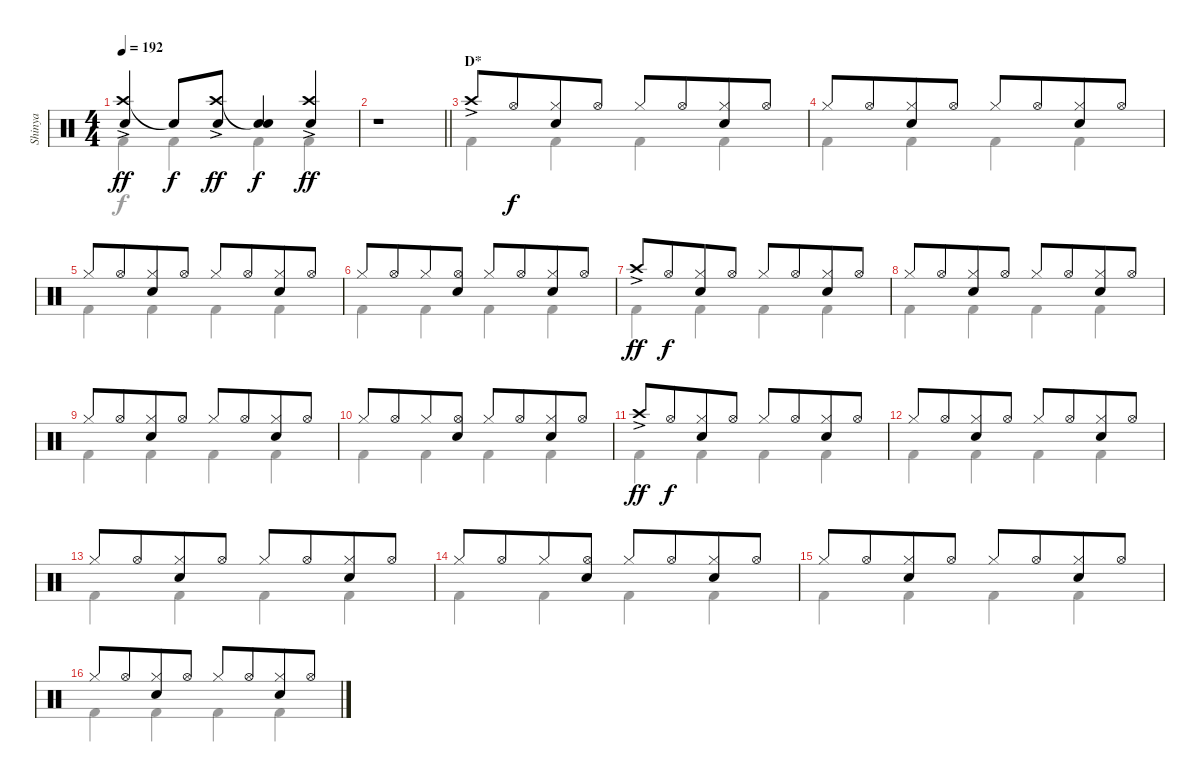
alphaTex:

\track ("Shinya" "Shinya") {instrument percussion}
\staff {score}
\articulation defaults
\voice
\ts (4 4)
\tempo 192
\clef neutral
\ks c
("Crash high (hit)"{ac} "Snare (hit) 2").4{dy ff} "Snare (hit)"{t}.8{dy f} ("Crash high (hit)"{ac} "Snare (hit) 2").8{dy ff} ("Snare (hit)"{t} "Snare (hit) 2").4{dy f} ("Crash high (hit)"{ac} "Snare (hit) 2").4{dy ff} |
\barLineRight lightlight
r.1 |
\section ("" "D*")
"Crash high (hit)"{ac}.8 "Hi-Hat (open)".8{dy f beam merge} ("Hi-Hat (closed)" "Snare (hit) 2").8 "Hi-Hat (open)".8 "Hi-Hat (closed)".8 "Hi-Hat (open)".8{beam merge} ("Hi-Hat (closed)" "Snare (hit) 2").8 "Hi-Hat (open)".8 |
"Hi-Hat (closed)".8 "Hi-Hat (open)".8{beam merge} ("Hi-Hat (closed)" "Snare (hit) 2").8 "Hi-Hat (open)".8 "Hi-Hat (closed)".8 "Hi-Hat (open)".8{beam merge} ("Hi-Hat (closed)" "Snare (hit) 2").8 "Hi-Hat (open)".8 |
"Hi-Hat (closed)".8 "Hi-Hat (open)".8{beam merge} ("Hi-Hat (closed)" "Snare (hit) 2").8 "Hi-Hat (open)".8 "Hi-Hat (closed)".8 "Hi-Hat (open)".8{beam merge} ("Hi-Hat (closed)" "Snare (hit) 2").8 "Hi-Hat (open)".8 |
"Hi-Hat (closed)".8 "Hi-Hat (open)".8{beam merge} "Hi-Hat (closed)".8 ("Hi-Hat (open)" "Snare (hit) 2").8 "Hi-Hat (closed)".8 "Hi-Hat (open)".8{beam merge} ("Hi-Hat (closed)" "Snare (hit) 2").8 "Hi-Hat (open)".8 |
"Crash high (hit)"{ac}.8{dy ff} "Hi-Hat (open)".8{dy f beam merge} ("Hi-Hat (closed)" "Snare (hit) 2").8 "Hi-Hat (open)".8 "Hi-Hat (closed)".8 "Hi-Hat (open)".8{beam merge} ("Hi-Hat (closed)" "Snare (hit) 2").8 "Hi-Hat (open)".8 |
"Hi-Hat (closed)".8 "Hi-Hat (open)".8{beam merge} ("Hi-Hat (closed)" "Snare (hit) 2").8 "Hi-Hat (open)".8 "Hi-Hat (closed)".8 "Hi-Hat (open)".8{beam merge} ("Hi-Hat (closed)" "Snare (hit) 2").8 "Hi-Hat (open)".8 |
"Hi-Hat (closed)".8 "Hi-Hat (open)".8{beam merge} ("Hi-Hat (closed)" "Snare (hit) 2").8 "Hi-Hat (open)".8 "Hi-Hat (closed)".8 "Hi-Hat (open)".8{beam merge} ("Hi-Hat (closed)" "Snare (hit) 2").8 "Hi-Hat (open)".8 |
"Hi-Hat (closed)".8 "Hi-Hat (open)".8{beam merge} "Hi-Hat (closed)".8 ("Hi-Hat (open)" "Snare (hit) 2").8 "Hi-Hat (closed)".8 "Hi-Hat (open)".8{beam merge} ("Hi-Hat (closed)" "Snare (hit) 2").8 "Hi-Hat (open)".8 |
"Crash high (hit)"{ac}.8{dy ff} "Hi-Hat (open)".8{dy f beam merge} ("Hi-Hat (closed)" "Snare (hit) 2").8 "Hi-Hat (open)".8 "Hi-Hat (closed)".8 "Hi-Hat (open)".8{beam merge} ("Hi-Hat (closed)" "Snare (hit) 2").8 "Hi-Hat (open)".8 |
"Hi-Hat (closed)".8 "Hi-Hat (open)".8{beam merge} ("Hi-Hat (closed)" "Snare (hit) 2").8 "Hi-Hat (open)".8 "Hi-Hat (closed)".8 "Hi-Hat (open)".8{beam merge} ("Hi-Hat (closed)" "Snare (hit) 2").8 "Hi-Hat (open)".8 |
"Hi-Hat (closed)".8 "Hi-Hat (open)".8{beam merge} ("Hi-Hat (closed)" "Snare (hit) 2").8 "Hi-Hat (open)".8 "Hi-Hat (closed)".8 "Hi-Hat (open)".8{beam merge} ("Hi-Hat (closed)" "Snare (hit) 2").8 "Hi-Hat (open)".8 |
"Hi-Hat (closed)".8 "Hi-Hat (open)".8{beam merge} "Hi-Hat (closed)".8 ("Hi-Hat (open)" "Snare (hit) 2").8 "Hi-Hat (closed)".8 "Hi-Hat (open)".8{beam merge} ("Hi-Hat (closed)" "Snare (hit) 2").8 "Hi-Hat (open)".8 |
"Hi-Hat (closed)".8 "Hi-Hat (open)".8{beam merge} ("Hi-Hat (closed)" "Snare (hit) 2").8 "Hi-Hat (open)".8 "Hi-Hat (closed)".8 "Hi-Hat (open)".8{beam merge} ("Hi-Hat (closed)" "Snare (hit) 2").8 "Hi-Hat (open)".8 |
"Hi-Hat (closed)".8 "Hi-Hat (open)".8{beam merge} ("Hi-Hat (closed)" "Snare (hit) 2").8 "Hi-Hat (open)".8 "Hi-Hat (closed)".8 "Hi-Hat (open)".8{beam merge} ("Hi-Hat (closed)" "Snare (hit) 2").8 "Hi-Hat (open)".8
\voice
\clef neutral
\ottava regular
\simile none
\ks c "Kick (hit) 2".4{dy f} "Kick (hit) 2".4 "Kick (hit) 2".4 "Kick (hit) 2".4
|
\barLineRight lightlight
r.1 |
"Kick (hit) 2".4 "Kick (hit) 2".4 "Kick (hit) 2".4 "Kick (hit) 2".4 |
"Kick (hit) 2".4 "Kick (hit) 2".4 "Kick (hit) 2".4 "Kick (hit) 2".4 |
"Kick (hit) 2".4 "Kick (hit) 2".4 "Kick (hit) 2".4 "Kick (hit) 2".4 |
"Kick (hit) 2".4 "Kick (hit) 2".4 "Kick (hit) 2".4 "Kick (hit) 2".4 |
"Kick (hit) 2".4 "Kick (hit) 2".4 "Kick (hit) 2".4 "Kick (hit) 2".4 |
"Kick (hit) 2".4 "Kick (hit) 2".4 "Kick (hit) 2".4 "Kick (hit) 2".4 |
"Kick (hit) 2".4 "Kick (hit) 2".4 "Kick (hit) 2".4 "Kick (hit) 2".4 |
"Kick (hit) 2".4 "Kick (hit) 2".4 "Kick (hit) 2".4 "Kick (hit) 2".4 |
"Kick (hit) 2".4 "Kick (hit) 2".4 "Kick (hit) 2".4 "Kick (hit) 2".4 |
"Kick (hit) 2".4 "Kick (hit) 2".4 "Kick (hit) 2".4 "Kick (hit) 2".4 |
"Kick (hit) 2".4 "Kick (hit) 2".4 "Kick (hit) 2".4 "Kick (hit) 2".4 |
"Kick (hit) 2".4 "Kick (hit) 2".4 "Kick (hit) 2".4 "Kick (hit) 2".4 |
"Kick (hit) 2".4 "Kick (hit) 2".4 "Kick (hit) 2".4 "Kick (hit) 2".4 |
"Kick (hit) 2".4 "Kick (hit) 2".4 "Kick (hit) 2".4 "Kick (hit) 2".4
